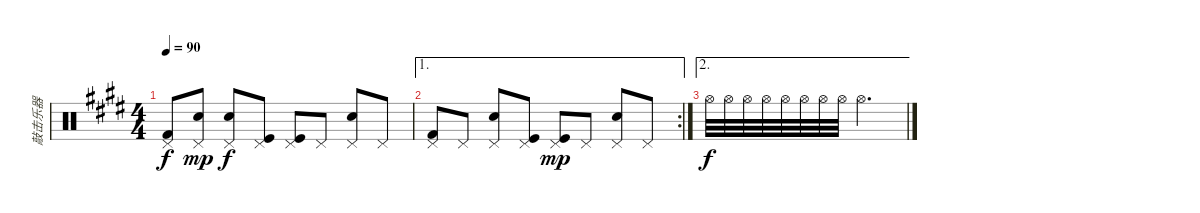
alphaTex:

\track ("敲击乐器" "敲击乐器") {solo instrument percussion}
\staff {score}
\articulation defaults
\ts (4 4)
\tempo 90
\clef neutral
\ks e
("Kick (hit) 2" "Pedal Hi-Hat (hit)").8{dy f} ("Snare (hit) 2" "Pedal Hi-Hat (hit)").8{dy mp} ("Pedal Hi-Hat (hit)" "Snare (hit) 2").8{dy f} ("Pedal Hi-Hat (hit)" "Kick (hit)").8 ("Kick (hit)" "Pedal Hi-Hat (hit)").8 "Pedal Hi-Hat (hit)".8 ("Snare (hit) 2" "Pedal Hi-Hat (hit)").8 "Pedal Hi-Hat (hit)".8 |
\ae 1
\rc 2
("Kick (hit) 2" "Pedal Hi-Hat (hit)").8 "Pedal Hi-Hat (hit)".8 ("Pedal Hi-Hat (hit)" "Snare (hit) 2").8 ("Pedal Hi-Hat (hit)" "Kick (hit)").8 ("Pedal Hi-Hat (hit)" "Kick (hit)").8{dy mp} "Pedal Hi-Hat (hit)".8 ("Pedal Hi-Hat (hit)" "Snare (hit) 2").8 "Pedal Hi-Hat (hit)".8 |
\ae 2 "Hi-Hat (open)".32{dy f} "Hi-Hat (open)".32 "Hi-Hat (open)".32 "Hi-Hat (open)".32 "Hi-Hat (open)".32 "Hi-Hat (open)".32 "Hi-Hat (open)".32 "Hi-Hat (open)".32 "Hi-Hat (open)".2{d}
